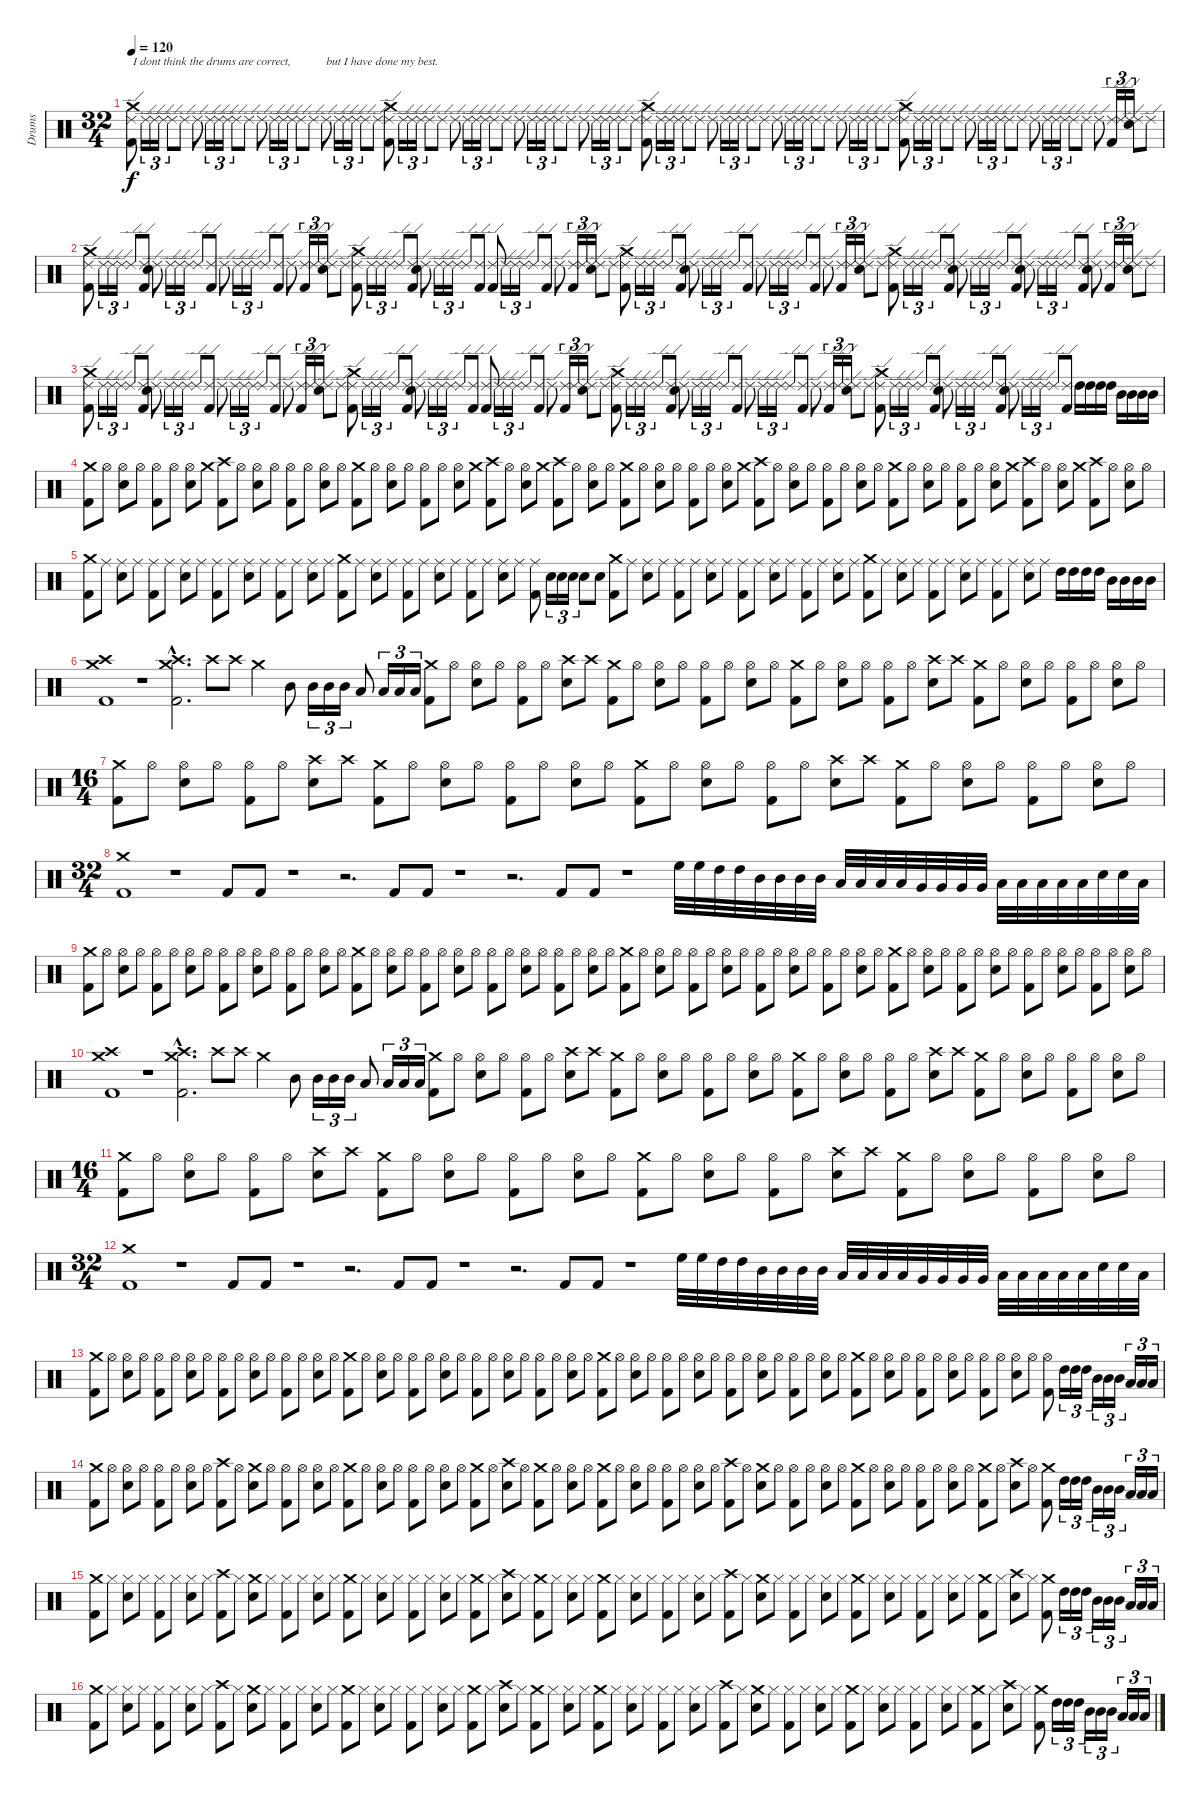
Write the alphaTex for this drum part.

\track ("Drums" "Drums") {instrument percussion}
\staff {score}
\articulation defaults
\ts (32 4)
\tempo 120
\clef neutral
\ks c
("Crash medium (hit)" "Ride (edge) 2" "Kick (hit) 2").8{txt "I dont think the drums are correct," dy f} "Ride (edge) 2".16{tu (3 2)} "Ride (edge) 2".16{tu (3 2)} "Ride (edge) 2".16{tu (3 2)} "Ride (edge) 2".8 "Ride (edge) 2".8 "Ride (edge) 2".8 "Ride (edge) 2".16{tu (3 2)} "Ride (edge) 2".16{tu (3 2)} "Ride (edge) 2".16{tu (3 2)} "Ride (edge) 2".8 "Ride (edge) 2".8 "Ride (edge) 2".8 "Ride (edge) 2".16{tu (3 2)} "Ride (edge) 2".16{tu (3 2)} "Ride (edge) 2".16{tu (3 2)} "Ride (edge) 2".8 "Ride (edge) 2".8 "Ride (edge) 2".8{txt "but I have done my best."} "Ride (edge) 2".16{tu (3 2)} "Ride (edge) 2".16{tu (3 2)} "Ride (edge) 2".16{tu (3 2)} "Ride (edge) 2".8 "Ride (edge) 2".8 ("Crash medium (hit)" "Ride (edge) 2" "Kick (hit) 2").8 "Ride (edge) 2".16{tu (3 2)} "Ride (edge) 2".16{tu (3 2)} "Ride (edge) 2".16{tu (3 2)} "Ride (edge) 2".8 "Ride (edge) 2".8 "Ride (edge) 2".8 "Ride (edge) 2".16{tu (3 2)} "Ride (edge) 2".16{tu (3 2)} "Ride (edge) 2".16{tu (3 2)} "Ride (edge) 2".8 "Ride (edge) 2".8 "Ride (edge) 2".8 "Ride (edge) 2".16{tu (3 2)} "Ride (edge) 2".16{tu (3 2)} "Ride (edge) 2".16{tu (3 2)} "Ride (edge) 2".8 "Ride (edge) 2".8 "Ride (edge) 2".8 "Ride (edge) 2".16{tu (3 2)} "Ride (edge) 2".16{tu (3 2)} "Ride (edge) 2".16{tu (3 2)} "Ride (edge) 2".8 "Ride (edge) 2".8 ("Crash medium (hit)" "Ride (edge) 2" "Kick (hit) 2").8 "Ride (edge) 2".16{tu (3 2)} "Ride (edge) 2".16{tu (3 2)} "Ride (edge) 2".16{tu (3 2)} "Ride (edge) 2".8 "Ride (edge) 2".8 "Ride (edge) 2".8 "Ride (edge) 2".16{tu (3 2)} "Ride (edge) 2".16{tu (3 2)} "Ride (edge) 2".16{tu (3 2)} "Ride (edge) 2".8 "Ride (edge) 2".8 "Ride (edge) 2".8 "Ride (edge) 2".16{tu (3 2)} "Ride (edge) 2".16{tu (3 2)} "Ride (edge) 2".16{tu (3 2)} "Ride (edge) 2".8 "Ride (edge) 2".8 "Ride (edge) 2".8 "Ride (edge) 2".16{tu (3 2)} "Ride (edge) 2".16{tu (3 2)} "Ride (edge) 2".16{tu (3 2)} "Ride (edge) 2".8 "Ride (edge) 2".8 ("Crash medium (hit)" "Ride (edge) 2" "Kick (hit) 2").8 "Ride (edge) 2".16{tu (3 2)} "Ride (edge) 2".16{tu (3 2)} "Ride (edge) 2".16{tu (3 2)} "Ride (edge) 2".8 "Ride (edge) 2".8 "Ride (edge) 2".8 "Ride (edge) 2".16{tu (3 2)} "Ride (edge) 2".16{tu (3 2)} "Ride (edge) 2".16{tu (3 2)} "Ride (edge) 2".8 "Ride (edge) 2".8 "Ride (edge) 2".8 "Ride (edge) 2".16{tu (3 2)} "Ride (edge) 2".16{tu (3 2)} "Ride (edge) 2".16{tu (3 2)} "Ride (edge) 2".8 "Ride (edge) 2".8 "Ride (edge) 2".8 ("Ride (edge) 2" "Kick (hit) 2").16{tu (3 2)} "Ride (edge) 2".16{tu (3 2)} "Ride (edge) 2".16{tu (3 2)} ("Ride (edge) 2" "Snare (hit) 2").8 "Ride (edge) 2".8 |
("Crash medium (hit)" "Ride (edge) 2" "Kick (hit) 2").8 "Ride (edge) 2".16{tu (3 2)} "Ride (edge) 2".16{tu (3 2)} "Ride (edge) 2".16{tu (3 2)} "Ride (edge) 2".8 ("Ride (edge) 2" "Kick (hit) 2").8 ("Ride (edge) 2" "Snare (hit) 2").8 "Ride (edge) 2".16{tu (3 2)} "Ride (edge) 2".16{tu (3 2)} "Ride (edge) 2".16{tu (3 2)} "Ride (edge) 2".8 ("Ride (edge) 2" "Kick (hit) 2").8 "Ride (edge) 2".8 "Ride (edge) 2".16{tu (3 2)} "Ride (edge) 2".16{tu (3 2)} "Ride (edge) 2".16{tu (3 2)} "Ride (edge) 2".8 ("Ride (edge) 2" "Kick (hit) 2").8 "Ride (edge) 2".8 ("Ride (edge) 2" "Kick (hit) 2").16{tu (3 2)} "Ride (edge) 2".16{tu (3 2)} "Ride (edge) 2".16{tu (3 2)} ("Ride (edge) 2" "Snare (hit) 2").8 "Ride (edge) 2".8 ("Crash medium (hit)" "Ride (edge) 2" "Kick (hit) 2").8 "Ride (edge) 2".16{tu (3 2)} "Ride (edge) 2".16{tu (3 2)} "Ride (edge) 2".16{tu (3 2)} "Ride (edge) 2".8 ("Ride (edge) 2" "Kick (hit) 2").8 ("Ride (edge) 2" "Snare (hit) 2").8 "Ride (edge) 2".16{tu (3 2)} "Ride (edge) 2".16{tu (3 2)} "Ride (edge) 2".16{tu (3 2)} "Ride (edge) 2".8 ("Ride (edge) 2" "Kick (hit) 2").8 ("Ride (edge) 2" "Kick (hit) 2").8 "Ride (edge) 2".16{tu (3 2)} "Ride (edge) 2".16{tu (3 2)} "Ride (edge) 2".16{tu (3 2)} "Ride (edge) 2".8 ("Ride (edge) 2" "Kick (hit) 2").8 "Ride (edge) 2".8 ("Ride (edge) 2" "Kick (hit) 2").16{tu (3 2)} "Ride (edge) 2".16{tu (3 2)} "Ride (edge) 2".16{tu (3 2)} ("Ride (edge) 2" "Snare (hit) 2").8 "Ride (edge) 2".8 ("Crash medium (hit)" "Ride (edge) 2" "Kick (hit) 2").8 "Ride (edge) 2".16{tu (3 2)} "Ride (edge) 2".16{tu (3 2)} "Ride (edge) 2".16{tu (3 2)} "Ride (edge) 2".8 ("Ride (edge) 2" "Kick (hit) 2").8 ("Ride (edge) 2" "Snare (hit) 2").8 "Ride (edge) 2".16{tu (3 2)} "Ride (edge) 2".16{tu (3 2)} "Ride (edge) 2".16{tu (3 2)} "Ride (edge) 2".8 ("Ride (edge) 2" "Kick (hit) 2").8 "Ride (edge) 2".8 "Ride (edge) 2".16{tu (3 2)} "Ride (edge) 2".16{tu (3 2)} "Ride (edge) 2".16{tu (3 2)} "Ride (edge) 2".8 ("Ride (edge) 2" "Kick (hit) 2").8 "Ride (edge) 2".8 ("Ride (edge) 2" "Kick (hit) 2").16{tu (3 2)} "Ride (edge) 2".16{tu (3 2)} "Ride (edge) 2".16{tu (3 2)} ("Ride (edge) 2" "Snare (hit) 2").8 "Ride (edge) 2".8 ("Crash medium (hit)" "Ride (edge) 2" "Kick (hit) 2").8 "Ride (edge) 2".16{tu (3 2)} "Ride (edge) 2".16{tu (3 2)} "Ride (edge) 2".16{tu (3 2)} "Ride (edge) 2".8 ("Ride (edge) 2" "Kick (hit) 2").8 ("Ride (edge) 2" "Snare (hit) 2").8 "Ride (edge) 2".16{tu (3 2)} "Ride (edge) 2".16{tu (3 2)} "Ride (edge) 2".16{tu (3 2)} "Ride (edge) 2".8 ("Ride (edge) 2" "Kick (hit) 2").8 ("Ride (edge) 2" "Snare (hit) 2").8 "Ride (edge) 2".16{tu (3 2)} "Ride (edge) 2".16{tu (3 2)} "Ride (edge) 2".16{tu (3 2)} "Ride (edge) 2".8 ("Ride (edge) 2" "Kick (hit) 2").8 ("Ride (edge) 2" "Snare (hit) 2").8 ("Ride (edge) 2" "Kick (hit) 2").16{tu (3 2)} "Ride (edge) 2".16{tu (3 2)} "Ride (edge) 2".16{tu (3 2)} ("Ride (edge) 2" "Snare (hit) 2").8 "Ride (edge) 2".8 |
("Crash medium (hit)" "Ride (edge) 2" "Kick (hit) 2").8 "Ride (edge) 2".16{tu (3 2)} "Ride (edge) 2".16{tu (3 2)} "Ride (edge) 2".16{tu (3 2)} "Ride (edge) 2".8 ("Ride (edge) 2" "Kick (hit) 2").8 ("Ride (edge) 2" "Snare (hit) 2").8 "Ride (edge) 2".16{tu (3 2)} "Ride (edge) 2".16{tu (3 2)} "Ride (edge) 2".16{tu (3 2)} "Ride (edge) 2".8 ("Ride (edge) 2" "Kick (hit) 2").8 "Ride (edge) 2".8 "Ride (edge) 2".16{tu (3 2)} "Ride (edge) 2".16{tu (3 2)} "Ride (edge) 2".16{tu (3 2)} "Ride (edge) 2".8 ("Ride (edge) 2" "Kick (hit) 2").8 "Ride (edge) 2".8 ("Ride (edge) 2" "Kick (hit) 2").16{tu (3 2)} "Ride (edge) 2".16{tu (3 2)} "Ride (edge) 2".16{tu (3 2)} ("Ride (edge) 2" "Snare (hit) 2").8 "Ride (edge) 2".8 ("Crash medium (hit)" "Ride (edge) 2" "Kick (hit) 2").8 "Ride (edge) 2".16{tu (3 2)} "Ride (edge) 2".16{tu (3 2)} "Ride (edge) 2".16{tu (3 2)} "Ride (edge) 2".8 ("Ride (edge) 2" "Kick (hit) 2").8 ("Ride (edge) 2" "Snare (hit) 2").8 "Ride (edge) 2".16{tu (3 2)} "Ride (edge) 2".16{tu (3 2)} "Ride (edge) 2".16{tu (3 2)} "Ride (edge) 2".8 ("Ride (edge) 2" "Kick (hit) 2").8 ("Ride (edge) 2" "Kick (hit) 2").8 "Ride (edge) 2".16{tu (3 2)} "Ride (edge) 2".16{tu (3 2)} "Ride (edge) 2".16{tu (3 2)} "Ride (edge) 2".8 ("Ride (edge) 2" "Kick (hit) 2").8 "Ride (edge) 2".8 ("Ride (edge) 2" "Kick (hit) 2").16{tu (3 2)} "Ride (edge) 2".16{tu (3 2)} "Ride (edge) 2".16{tu (3 2)} ("Ride (edge) 2" "Snare (hit) 2").8 "Ride (edge) 2".8 ("Crash medium (hit)" "Ride (edge) 2" "Kick (hit) 2").8 "Ride (edge) 2".16{tu (3 2)} "Ride (edge) 2".16{tu (3 2)} "Ride (edge) 2".16{tu (3 2)} "Ride (edge) 2".8 ("Ride (edge) 2" "Kick (hit) 2").8 ("Ride (edge) 2" "Snare (hit) 2").8 "Ride (edge) 2".16{tu (3 2)} "Ride (edge) 2".16{tu (3 2)} "Ride (edge) 2".16{tu (3 2)} "Ride (edge) 2".8 ("Ride (edge) 2" "Kick (hit) 2").8 "Ride (edge) 2".8 "Ride (edge) 2".16{tu (3 2)} "Ride (edge) 2".16{tu (3 2)} "Ride (edge) 2".16{tu (3 2)} "Ride (edge) 2".8 ("Ride (edge) 2" "Kick (hit) 2").8 "Ride (edge) 2".8 ("Ride (edge) 2" "Kick (hit) 2").16{tu (3 2)} "Ride (edge) 2".16{tu (3 2)} "Ride (edge) 2".16{tu (3 2)} ("Ride (edge) 2" "Snare (hit) 2").8 "Ride (edge) 2".8 ("Crash medium (hit)" "Ride (edge) 2" "Kick (hit) 2").8 "Ride (edge) 2".16{tu (3 2)} "Ride (edge) 2".16{tu (3 2)} "Ride (edge) 2".16{tu (3 2)} "Ride (edge) 2".8 ("Ride (edge) 2" "Kick (hit) 2").8 ("Ride (edge) 2" "Snare (hit) 2").8 "Ride (edge) 2".16{tu (3 2)} "Ride (edge) 2".16{tu (3 2)} "Ride (edge) 2".16{tu (3 2)} "Ride (edge) 2".8 ("Ride (edge) 2" "Kick (hit) 2").8 ("Ride (edge) 2" "Snare (hit) 2").8 "Ride (edge) 2".16{tu (3 2)} "Ride (edge) 2".16{tu (3 2)} "Ride (edge) 2".16{tu (3 2)} "Ride (edge) 2".8 ("Ride (edge) 2" "Kick (hit) 2").8 "High Tom (hit)".16 "High Tom (hit)".16 "High Tom (hit)".16 "High Tom (hit)".16 "Mid Tom (hit)".16 "Mid Tom (hit)".16 "Mid Tom (hit)".16 "Mid Tom (hit)".16 |
("Crash medium (hit)" "Kick (hit) 2").8 "Hi-Hat (open)".8 ("Hi-Hat (open)" "Snare (hit) 2").8 "Hi-Hat (open)".8 ("Hi-Hat (open)" "Kick (hit) 2").8 "Hi-Hat (open)".8 ("Hi-Hat (open)" "Snare (hit) 2").8 "Crash medium (hit)".8 ("Crash high (hit)" "Kick (hit) 2").8 "Hi-Hat (open)".8 ("Hi-Hat (open)" "Snare (hit) 2").8 "Hi-Hat (open)".8 ("Hi-Hat (open)" "Kick (hit) 2").8 "Hi-Hat (open)".8 ("Hi-Hat (open)" "Snare (hit) 2").8 "Hi-Hat (open)".8 ("Crash medium (hit)" "Kick (hit) 2").8 "Hi-Hat (open)".8 ("Hi-Hat (open)" "Snare (hit) 2").8 "Hi-Hat (open)".8 ("Hi-Hat (open)" "Kick (hit) 2").8 "Hi-Hat (open)".8 ("Hi-Hat (open)" "Snare (hit) 2").8 "Crash medium (hit)".8 ("Crash high (hit)" "Kick (hit) 2").8 "Hi-Hat (open)".8 ("Hi-Hat (open)" "Snare (hit) 2").8 "Crash medium (hit)".8 ("Crash high (hit)" "Kick (hit) 2").8 "Hi-Hat (open)".8 ("Hi-Hat (open)" "Snare (hit) 2").8 "Hi-Hat (open)".8 ("Crash medium (hit)" "Kick (hit) 2").8 "Hi-Hat (open)".8 ("Hi-Hat (open)" "Snare (hit) 2").8 "Hi-Hat (open)".8 ("Hi-Hat (open)" "Kick (hit) 2").8 "Hi-Hat (open)".8 ("Hi-Hat (open)" "Snare (hit) 2").8 "Crash medium (hit)".8 ("Crash high (hit)" "Kick (hit) 2").8 "Hi-Hat (open)".8 ("Hi-Hat (open)" "Snare (hit) 2").8 "Hi-Hat (open)".8 ("Hi-Hat (open)" "Kick (hit) 2").8 "Hi-Hat (open)".8 ("Hi-Hat (open)" "Snare (hit) 2").8 "Hi-Hat (open)".8 ("Crash medium (hit)" "Kick (hit) 2").8 "Hi-Hat (open)".8 ("Hi-Hat (open)" "Snare (hit) 2").8 "Hi-Hat (open)".8 ("Hi-Hat (open)" "Kick (hit) 2").8 "Hi-Hat (open)".8 ("Hi-Hat (open)" "Snare (hit) 2").8 "Crash medium (hit)".8 ("Crash high (hit)" "Kick (hit) 2").8 "Hi-Hat (open)".8 ("Hi-Hat (open)" "Snare (hit) 2").8 "Crash medium (hit)".8 ("Crash high (hit)" "Kick (hit) 2").8 "Hi-Hat (open)".8 ("Hi-Hat (open)" "Snare (hit) 2").8 "Hi-Hat (open)".8 |
("Crash medium (hit)" "Kick (hit) 2").8 "Ride (middle)".8 ("Ride (middle)" "Snare (hit) 2").8 "Ride (middle)".8 ("Ride (middle)" "Kick (hit) 2").8 "Ride (middle)".8 ("Ride (middle)" "Snare (hit) 2").8 "Ride (middle)".8 ("Ride (middle)" "Kick (hit) 2").8 "Ride (middle)".8 ("Ride (middle)" "Snare (hit) 2").8 "Ride (middle)".8 ("Ride (middle)" "Kick (hit) 2").8 "Ride (middle)".8 ("Ride (middle)" "Snare (hit) 2").8 "Ride (middle)".8 ("Crash medium (hit)" "Kick (hit) 2").8 "Ride (middle)".8 ("Ride (middle)" "Snare (hit) 2").8 "Ride (middle)".8 ("Ride (middle)" "Kick (hit) 2").8 "Ride (middle)".8 ("Ride (middle)" "Snare (hit) 2").8 "Ride (middle)".8 ("Ride (middle)" "Kick (hit) 2").8 "Ride (middle)".8 ("Ride (middle)" "Snare (hit) 2").8 "Ride (middle)".8 ("Ride (middle)" "Kick (hit) 2").8 "Snare (hit) 2".16{tu (3 2)} "Snare (hit) 2".16{tu (3 2)} "Snare (hit) 2".16{tu (3 2)} "Snare (hit) 2".8 "Snare (hit) 2".8 ("Crash medium (hit)" "Kick (hit) 2").8 "Ride (middle)".8 ("Ride (middle)" "Snare (hit) 2").8 "Ride (middle)".8 ("Ride (middle)" "Kick (hit) 2").8 "Ride (middle)".8 ("Ride (middle)" "Snare (hit) 2").8 "Ride (middle)".8 ("Ride (middle)" "Kick (hit) 2").8 "Ride (middle)".8 ("Ride (middle)" "Snare (hit) 2").8 "Ride (middle)".8 ("Ride (middle)" "Kick (hit) 2").8 "Ride (middle)".8 ("Ride (middle)" "Snare (hit) 2").8 "Ride (middle)".8 ("Crash medium (hit)" "Kick (hit) 2").8 "Ride (middle)".8 ("Ride (middle)" "Snare (hit) 2").8 "Ride (middle)".8 ("Ride (middle)" "Kick (hit) 2").8 "Ride (middle)".8 ("Ride (middle)" "Snare (hit) 2").8 "Ride (middle)".8 ("Ride (middle)" "Kick (hit) 2").8 "Ride (middle)".8 ("Ride (middle)" "Snare (hit) 2").8 "Ride (middle)".8 "High Tom (hit)".16 "High Tom (hit)".16 "High Tom (hit)".16 "High Tom (hit)".16 "Mid Tom (hit)".16 "Mid Tom (hit)".16 "Mid Tom (hit)".16 "Mid Tom (hit)".16 |
("Crash medium (hit)" "Crash high (hit)" "Kick (hit) 2").1 r.1 ("Crash medium (hit)"{hac} "Crash high (hit)"{hac} "Kick (hit) 2"{hac}).2{d} "Crash high (hit)".8 "Crash high (hit)".8 "Crash medium (hit)".2 "Mid Tom (hit)".8 "Mid Tom (hit)".16{tu (3 2)} "Mid Tom (hit)".16{tu (3 2)} "Mid Tom (hit)".16{tu (3 2)} "Low Tom (hit)".8 "Low Tom (hit)".16{tu (3 2)} "Low Tom (hit)".16{tu (3 2)} "Low Tom (hit)".16{tu (3 2)} ("Crash medium (hit)" "Kick (hit) 2").8 "Hi-Hat (open)".8 ("Hi-Hat (open)" "Snare (hit) 2").8 "Hi-Hat (open)".8 ("Hi-Hat (open)" "Kick (hit) 2").8 "Hi-Hat (open)".8 ("Crash high (hit)" "Snare (hit) 2").8 "Crash high (hit)".8 ("Crash medium (hit)" "Kick (hit) 2").8 "Hi-Hat (open)".8 ("Hi-Hat (open)" "Snare (hit) 2").8 "Hi-Hat (open)".8 ("Hi-Hat (open)" "Kick (hit) 2").8 "Hi-Hat (open)".8 ("Hi-Hat (open)" "Snare (hit) 2").8 "Hi-Hat (open)".8 ("Crash medium (hit)" "Kick (hit) 2").8 "Hi-Hat (open)".8 ("Hi-Hat (open)" "Snare (hit) 2").8 "Hi-Hat (open)".8 ("Hi-Hat (open)" "Kick (hit) 2").8 "Hi-Hat (open)".8 ("Crash high (hit)" "Snare (hit) 2").8 "Crash high (hit)".8 ("Crash medium (hit)" "Kick (hit) 2").8 "Hi-Hat (open)".8 ("Hi-Hat (open)" "Snare (hit) 2").8 "Hi-Hat (open)".8 ("Hi-Hat (open)" "Kick (hit) 2").8 "Hi-Hat (open)".8 ("Hi-Hat (open)" "Snare (hit) 2").8 "Hi-Hat (open)".8 |
\ts (16 4)
("Crash medium (hit)" "Kick (hit) 2").8 "Hi-Hat (open)".8 ("Hi-Hat (open)" "Snare (hit) 2").8 "Hi-Hat (open)".8 ("Hi-Hat (open)" "Kick (hit) 2").8 "Hi-Hat (open)".8 ("Crash high (hit)" "Snare (hit) 2").8 "Crash high (hit)".8 ("Crash medium (hit)" "Kick (hit) 2").8 "Hi-Hat (open)".8 ("Hi-Hat (open)" "Snare (hit) 2").8 "Hi-Hat (open)".8 ("Hi-Hat (open)" "Kick (hit) 2").8 "Hi-Hat (open)".8 ("Hi-Hat (open)" "Snare (hit) 2").8 "Hi-Hat (open)".8 ("Crash medium (hit)" "Kick (hit) 2").8 "Hi-Hat (open)".8 ("Hi-Hat (open)" "Snare (hit) 2").8 "Hi-Hat (open)".8 ("Hi-Hat (open)" "Kick (hit) 2").8 "Hi-Hat (open)".8 ("Crash high (hit)" "Snare (hit) 2").8 "Crash high (hit)".8 ("Crash medium (hit)" "Kick (hit) 2").8 "Hi-Hat (open)".8 ("Hi-Hat (open)" "Snare (hit) 2").8 "Hi-Hat (open)".8 ("Hi-Hat (open)" "Kick (hit) 2").8 "Hi-Hat (open)".8 ("Hi-Hat (open)" "Snare (hit) 2").8 "Hi-Hat (open)".8 |
\ts (32 4)
("Crash medium (hit)" "Kick (hit) 2").1 r.1 "Kick (hit) 2".8 "Kick (hit) 2".8 r.1 r.2{d} "Kick (hit) 2".8 "Kick (hit) 2".8 r.1 r.2{d} "Kick (hit) 2".8 "Kick (hit) 2".8 r.1 "High Floor Tom (hit)".32 "High Floor Tom (hit)".32 "High Tom (hit)".32 "High Tom (hit)".32 "Mid Tom (hit)".32 "Mid Tom (hit)".32 "Mid Tom (hit)".32 "Mid Tom (hit)".32 "Low Tom (hit)".32 "Low Tom (hit)".32 "Low Tom (hit)".32 "Low Tom (hit)".32 "Very Low Tom (hit)".32 "Very Low Tom (hit)".32 "Very Low Tom (hit)".32 "Very Low Tom (hit)".32 "Low Floor Tom (hit)".32 "Low Floor Tom (hit)".32 "Low Floor Tom (hit)".32 "Low Floor Tom (hit)".32 "Low Floor Tom (hit)".32 "Snare (hit)".32 "Snare (hit)".32 "Low Floor Tom (hit)".32 |
("Crash medium (hit)" "Kick (hit) 2").8 "Hi-Hat (open)".8 ("Hi-Hat (open)" "Snare (hit) 2").8 "Hi-Hat (open)".8 ("Hi-Hat (open)" "Kick (hit) 2").8 "Hi-Hat (open)".8 ("Hi-Hat (open)" "Snare (hit) 2").8 "Hi-Hat (open)".8 ("Hi-Hat (open)" "Kick (hit) 2").8 "Hi-Hat (open)".8 ("Hi-Hat (open)" "Snare (hit) 2").8 "Hi-Hat (open)".8 ("Hi-Hat (open)" "Kick (hit) 2").8 "Hi-Hat (open)".8 ("Hi-Hat (open)" "Snare (hit) 2").8 "Hi-Hat (open)".8 ("Crash medium (hit)" "Kick (hit) 2").8 "Hi-Hat (open)".8 ("Hi-Hat (open)" "Snare (hit) 2").8 "Hi-Hat (open)".8 ("Hi-Hat (open)" "Kick (hit) 2").8 "Hi-Hat (open)".8 ("Hi-Hat (open)" "Snare (hit) 2").8 "Hi-Hat (open)".8 ("Hi-Hat (open)" "Kick (hit) 2").8 "Hi-Hat (open)".8 ("Hi-Hat (open)" "Snare (hit) 2").8 "Hi-Hat (open)".8 ("Hi-Hat (open)" "Kick (hit) 2").8 "Hi-Hat (open)".8 ("Hi-Hat (open)" "Snare (hit) 2").8 "Hi-Hat (open)".8 ("Crash medium (hit)" "Kick (hit) 2").8 "Hi-Hat (open)".8 ("Hi-Hat (open)" "Snare (hit) 2").8 "Hi-Hat (open)".8 ("Hi-Hat (open)" "Kick (hit) 2").8 "Hi-Hat (open)".8 ("Hi-Hat (open)" "Snare (hit) 2").8 "Hi-Hat (open)".8 ("Hi-Hat (open)" "Kick (hit) 2").8 "Hi-Hat (open)".8 ("Hi-Hat (open)" "Snare (hit) 2").8 "Hi-Hat (open)".8 ("Hi-Hat (open)" "Kick (hit) 2").8 "Hi-Hat (open)".8 ("Hi-Hat (open)" "Snare (hit) 2").8 "Hi-Hat (open)".8 ("Crash medium (hit)" "Kick (hit) 2").8 "Hi-Hat (open)".8 ("Hi-Hat (open)" "Snare (hit) 2").8 "Hi-Hat (open)".8 ("Hi-Hat (open)" "Kick (hit) 2").8 "Hi-Hat (open)".8 ("Hi-Hat (open)" "Snare (hit) 2").8 "Hi-Hat (open)".8 ("Hi-Hat (open)" "Kick (hit) 2").8 "Hi-Hat (open)".8 ("Hi-Hat (open)" "Snare (hit) 2").8 "Hi-Hat (open)".8 ("Hi-Hat (open)" "Kick (hit) 2").8 "Hi-Hat (open)".8 ("Hi-Hat (open)" "Snare (hit) 2").8 "Hi-Hat (open)".8 |
("Crash medium (hit)" "Crash high (hit)" "Kick (hit) 2").1 r.1 ("Crash medium (hit)"{hac} "Crash high (hit)"{hac} "Kick (hit) 2"{hac}).2{d} "Crash high (hit)".8 "Crash high (hit)".8 "Crash medium (hit)".2 "Mid Tom (hit)".8 "Mid Tom (hit)".16{tu (3 2)} "Mid Tom (hit)".16{tu (3 2)} "Mid Tom (hit)".16{tu (3 2)} "Low Tom (hit)".8 "Low Tom (hit)".16{tu (3 2)} "Low Tom (hit)".16{tu (3 2)} "Low Tom (hit)".16{tu (3 2)} ("Crash medium (hit)" "Kick (hit) 2").8 "Hi-Hat (open)".8 ("Hi-Hat (open)" "Snare (hit) 2").8 "Hi-Hat (open)".8 ("Hi-Hat (open)" "Kick (hit) 2").8 "Hi-Hat (open)".8 ("Crash high (hit)" "Snare (hit) 2").8 "Crash high (hit)".8 ("Crash medium (hit)" "Kick (hit) 2").8 "Hi-Hat (open)".8 ("Hi-Hat (open)" "Snare (hit) 2").8 "Hi-Hat (open)".8 ("Hi-Hat (open)" "Kick (hit) 2").8 "Hi-Hat (open)".8 ("Hi-Hat (open)" "Snare (hit) 2").8 "Hi-Hat (open)".8 ("Crash medium (hit)" "Kick (hit) 2").8 "Hi-Hat (open)".8 ("Hi-Hat (open)" "Snare (hit) 2").8 "Hi-Hat (open)".8 ("Hi-Hat (open)" "Kick (hit) 2").8 "Hi-Hat (open)".8 ("Crash high (hit)" "Snare (hit) 2").8 "Crash high (hit)".8 ("Crash medium (hit)" "Kick (hit) 2").8 "Hi-Hat (open)".8 ("Hi-Hat (open)" "Snare (hit) 2").8 "Hi-Hat (open)".8 ("Hi-Hat (open)" "Kick (hit) 2").8 "Hi-Hat (open)".8 ("Hi-Hat (open)" "Snare (hit) 2").8 "Hi-Hat (open)".8 |
\ts (16 4)
("Crash medium (hit)" "Kick (hit) 2").8 "Hi-Hat (open)".8 ("Hi-Hat (open)" "Snare (hit) 2").8 "Hi-Hat (open)".8 ("Hi-Hat (open)" "Kick (hit) 2").8 "Hi-Hat (open)".8 ("Crash high (hit)" "Snare (hit) 2").8 "Crash high (hit)".8 ("Crash medium (hit)" "Kick (hit) 2").8 "Hi-Hat (open)".8 ("Hi-Hat (open)" "Snare (hit) 2").8 "Hi-Hat (open)".8 ("Hi-Hat (open)" "Kick (hit) 2").8 "Hi-Hat (open)".8 ("Hi-Hat (open)" "Snare (hit) 2").8 "Hi-Hat (open)".8 ("Crash medium (hit)" "Kick (hit) 2").8 "Hi-Hat (open)".8 ("Hi-Hat (open)" "Snare (hit) 2").8 "Hi-Hat (open)".8 ("Hi-Hat (open)" "Kick (hit) 2").8 "Hi-Hat (open)".8 ("Crash high (hit)" "Snare (hit) 2").8 "Crash high (hit)".8 ("Crash medium (hit)" "Kick (hit) 2").8 "Hi-Hat (open)".8 ("Hi-Hat (open)" "Snare (hit) 2").8 "Hi-Hat (open)".8 ("Hi-Hat (open)" "Kick (hit) 2").8 "Hi-Hat (open)".8 ("Hi-Hat (open)" "Snare (hit) 2").8 "Hi-Hat (open)".8 |
\ts (32 4)
("Crash medium (hit)" "Kick (hit) 2").1 r.1 "Kick (hit) 2".8 "Kick (hit) 2".8 r.1 r.2{d} "Kick (hit) 2".8 "Kick (hit) 2".8 r.1 r.2{d} "Kick (hit) 2".8 "Kick (hit) 2".8 r.1 "High Floor Tom (hit)".32 "High Floor Tom (hit)".32 "High Tom (hit)".32 "High Tom (hit)".32 "Mid Tom (hit)".32 "Mid Tom (hit)".32 "Mid Tom (hit)".32 "Mid Tom (hit)".32 "Low Tom (hit)".32 "Low Tom (hit)".32 "Low Tom (hit)".32 "Low Tom (hit)".32 "Very Low Tom (hit)".32 "Very Low Tom (hit)".32 "Very Low Tom (hit)".32 "Very Low Tom (hit)".32 "Low Floor Tom (hit)".32 "Low Floor Tom (hit)".32 "Low Floor Tom (hit)".32 "Low Floor Tom (hit)".32 "Low Floor Tom (hit)".32 "Snare (hit)".32 "Snare (hit)".32 "Low Floor Tom (hit)".32 |
("Crash medium (hit)" "Kick (hit) 2").8 "Hi-Hat (open)".8 ("Hi-Hat (open)" "Snare (hit) 2").8 "Hi-Hat (open)".8 ("Hi-Hat (open)" "Kick (hit) 2").8 "Hi-Hat (open)".8 ("Hi-Hat (open)" "Snare (hit) 2").8 "Hi-Hat (open)".8 ("Hi-Hat (open)" "Kick (hit) 2").8 "Hi-Hat (open)".8 ("Hi-Hat (open)" "Snare (hit) 2").8 "Hi-Hat (open)".8 ("Hi-Hat (open)" "Kick (hit) 2").8 "Hi-Hat (open)".8 ("Hi-Hat (open)" "Snare (hit) 2").8 "Hi-Hat (open)".8 ("Crash medium (hit)" "Kick (hit) 2").8 "Hi-Hat (open)".8 ("Hi-Hat (open)" "Snare (hit) 2").8 "Hi-Hat (open)".8 ("Hi-Hat (open)" "Kick (hit) 2").8 "Hi-Hat (open)".8 ("Hi-Hat (open)" "Snare (hit) 2").8 "Hi-Hat (open)".8 ("Hi-Hat (open)" "Kick (hit) 2").8 "Hi-Hat (open)".8 ("Hi-Hat (open)" "Snare (hit) 2").8 "Hi-Hat (open)".8 ("Hi-Hat (open)" "Kick (hit) 2").8 "Hi-Hat (open)".8 ("Hi-Hat (open)" "Snare (hit) 2").8 "Hi-Hat (open)".8 ("Crash medium (hit)" "Kick (hit) 2").8 "Hi-Hat (open)".8 ("Hi-Hat (open)" "Snare (hit) 2").8 "Hi-Hat (open)".8 ("Hi-Hat (open)" "Kick (hit) 2").8 "Hi-Hat (open)".8 ("Hi-Hat (open)" "Snare (hit) 2").8 "Hi-Hat (open)".8 ("Hi-Hat (open)" "Kick (hit) 2").8 "Hi-Hat (open)".8 ("Hi-Hat (open)" "Snare (hit) 2").8 "Hi-Hat (open)".8 ("Hi-Hat (open)" "Kick (hit) 2").8 "Hi-Hat (open)".8 ("Hi-Hat (open)" "Snare (hit) 2").8 "Hi-Hat (open)".8 ("Crash medium (hit)" "Kick (hit) 2").8 "Hi-Hat (open)".8 ("Hi-Hat (open)" "Snare (hit) 2").8 "Hi-Hat (open)".8 ("Hi-Hat (open)" "Kick (hit) 2").8 "Hi-Hat (open)".8 ("Hi-Hat (open)" "Snare (hit) 2").8 "Hi-Hat (open)".8 ("Hi-Hat (open)" "Kick (hit) 2").8 "Hi-Hat (open)".8 ("Hi-Hat (open)" "Snare (hit) 2").8 "Hi-Hat (open)".8 ("Hi-Hat (open)" "Kick (hit) 2").8 "High Tom (hit)".16{tu (3 2)} "High Tom (hit)".16{tu (3 2)} "High Tom (hit)".16{tu (3 2)} "Mid Tom (hit)".16{tu (3 2)} "Mid Tom (hit)".16{tu (3 2)} "Mid Tom (hit)".16{tu (3 2)} "Low Tom (hit)".16{tu (3 2)} "Low Tom (hit)".16{tu (3 2)} "Low Tom (hit)".16{tu (3 2)} |
("Crash medium (hit)" "Kick (hit) 2").8 "Hi-Hat (open)".8 ("Hi-Hat (open)" "Snare (hit) 2").8 "Hi-Hat (open)".8 ("Hi-Hat (open)" "Kick (hit) 2").8 "Hi-Hat (open)".8 ("Hi-Hat (open)" "Snare (hit) 2").8 "Hi-Hat (open)".8 ("Crash high (hit)" "Kick (hit) 2").8 "Hi-Hat (open)".8 ("Crash medium (hit)" "Snare (hit) 2").8 "Hi-Hat (open)".8 ("Hi-Hat (open)" "Kick (hit) 2").8 "Hi-Hat (open)".8 ("Hi-Hat (open)" "Snare (hit) 2").8 "Hi-Hat (open)".8 ("Crash medium (hit)" "Kick (hit) 2").8 "Hi-Hat (open)".8 ("Hi-Hat (open)" "Snare (hit) 2").8 "Hi-Hat (open)".8 ("Hi-Hat (open)" "Kick (hit) 2").8 "Hi-Hat (open)".8 ("Hi-Hat (open)" "Snare (hit) 2").8 "Hi-Hat (open)".8 ("Crash medium (hit)" "Kick (hit) 2").8 "Hi-Hat (open)".8 ("Crash high (hit)" "Snare (hit) 2").8 "Hi-Hat (open)".8 ("Crash medium (hit)" "Kick (hit) 2").8 "Hi-Hat (open)".8 ("Hi-Hat (open)" "Snare (hit) 2").8 "Hi-Hat (open)".8 ("Crash medium (hit)" "Kick (hit) 2").8 "Hi-Hat (open)".8 ("Hi-Hat (open)" "Snare (hit) 2").8 "Hi-Hat (open)".8 ("Hi-Hat (open)" "Kick (hit) 2").8 "Hi-Hat (open)".8 ("Hi-Hat (open)" "Snare (hit) 2").8 "Hi-Hat (open)".8 ("Crash high (hit)" "Kick (hit) 2").8 "Hi-Hat (open)".8 ("Crash medium (hit)" "Snare (hit) 2").8 "Hi-Hat (open)".8 ("Hi-Hat (open)" "Kick (hit) 2").8 "Hi-Hat (open)".8 ("Hi-Hat (open)" "Snare (hit) 2").8 "Hi-Hat (open)".8 ("Crash medium (hit)" "Kick (hit) 2").8 "Hi-Hat (open)".8 ("Hi-Hat (open)" "Snare (hit) 2").8 "Hi-Hat (open)".8 ("Hi-Hat (open)" "Kick (hit) 2").8 "Hi-Hat (open)".8 ("Hi-Hat (open)" "Snare (hit) 2").8 "Hi-Hat (open)".8 ("Crash medium (hit)" "Kick (hit) 2").8 "Hi-Hat (open)".8 ("Crash high (hit)" "Snare (hit) 2").8 "Hi-Hat (open)".8 ("Crash medium (hit)" "Kick (hit) 2").8 "High Tom (hit)".16{tu (3 2)} "High Tom (hit)".16{tu (3 2)} "High Tom (hit)".16{tu (3 2)} "Mid Tom (hit)".16{tu (3 2)} "Mid Tom (hit)".16{tu (3 2)} "Mid Tom (hit)".16{tu (3 2)} "Low Tom (hit)".16{tu (3 2)} "Low Tom (hit)".16{tu (3 2)} "Low Tom (hit)".16{tu (3 2)} |
("Crash medium (hit)" "Kick (hit) 2").8 "Hi-Hat (closed)".8 ("Hi-Hat (closed)" "Snare (hit) 2").8 "Hi-Hat (closed)".8 ("Hi-Hat (closed)" "Kick (hit) 2").8 "Hi-Hat (closed)".8 ("Hi-Hat (closed)" "Snare (hit) 2").8 "Hi-Hat (closed)".8 ("Crash high (hit)" "Kick (hit) 2").8 "Hi-Hat (closed)".8 ("Crash medium (hit)" "Snare (hit) 2").8 "Hi-Hat (closed)".8 ("Hi-Hat (closed)" "Kick (hit) 2").8 "Hi-Hat (closed)".8 ("Hi-Hat (closed)" "Snare (hit) 2").8 "Hi-Hat (closed)".8 ("Crash medium (hit)" "Kick (hit) 2").8 "Hi-Hat (closed)".8 ("Hi-Hat (closed)" "Snare (hit) 2").8 "Hi-Hat (closed)".8 ("Hi-Hat (closed)" "Kick (hit) 2").8 "Hi-Hat (closed)".8 ("Hi-Hat (closed)" "Snare (hit) 2").8 "Hi-Hat (closed)".8 ("Crash medium (hit)" "Kick (hit) 2").8 "Hi-Hat (closed)".8 ("Crash high (hit)" "Snare (hit) 2").8 "Hi-Hat (closed)".8 ("Crash medium (hit)" "Kick (hit) 2").8 "Hi-Hat (closed)".8 ("Hi-Hat (closed)" "Snare (hit) 2").8 "Hi-Hat (closed)".8 ("Crash medium (hit)" "Kick (hit) 2").8 "Hi-Hat (closed)".8 ("Hi-Hat (closed)" "Snare (hit) 2").8 "Hi-Hat (closed)".8 ("Hi-Hat (closed)" "Kick (hit) 2").8 "Hi-Hat (closed)".8 ("Hi-Hat (closed)" "Snare (hit) 2").8 "Hi-Hat (closed)".8 ("Crash high (hit)" "Kick (hit) 2").8 "Hi-Hat (closed)".8 ("Crash medium (hit)" "Snare (hit) 2").8 "Hi-Hat (closed)".8 ("Hi-Hat (closed)" "Kick (hit) 2").8 "Hi-Hat (closed)".8 ("Hi-Hat (closed)" "Snare (hit) 2").8 "Hi-Hat (closed)".8 ("Crash medium (hit)" "Kick (hit) 2").8 "Hi-Hat (closed)".8 ("Hi-Hat (closed)" "Snare (hit) 2").8 "Hi-Hat (closed)".8 ("Hi-Hat (closed)" "Kick (hit) 2").8 "Hi-Hat (closed)".8 ("Hi-Hat (closed)" "Snare (hit) 2").8 "Hi-Hat (closed)".8 ("Crash medium (hit)" "Kick (hit) 2").8 "Hi-Hat (closed)".8 ("Crash high (hit)" "Snare (hit) 2").8 "Hi-Hat (closed)".8 ("Crash medium (hit)" "Kick (hit) 2").8 "High Tom (hit)".16{tu (3 2)} "High Tom (hit)".16{tu (3 2)} "High Tom (hit)".16{tu (3 2)} "Mid Tom (hit)".16{tu (3 2)} "Mid Tom (hit)".16{tu (3 2)} "Mid Tom (hit)".16{tu (3 2)} "Low Tom (hit)".16{tu (3 2)} "Low Tom (hit)".16{tu (3 2)} "Low Tom (hit)".16{tu (3 2)} |
("Crash medium (hit)" "Kick (hit) 2").8 "Hi-Hat (closed)".8 ("Hi-Hat (closed)" "Snare (hit) 2").8 "Hi-Hat (closed)".8 ("Hi-Hat (closed)" "Kick (hit) 2").8 "Hi-Hat (closed)".8 ("Hi-Hat (closed)" "Snare (hit) 2").8 "Hi-Hat (closed)".8 ("Crash high (hit)" "Kick (hit) 2").8 "Hi-Hat (closed)".8 ("Crash medium (hit)" "Snare (hit) 2").8 "Hi-Hat (closed)".8 ("Hi-Hat (closed)" "Kick (hit) 2").8 "Hi-Hat (closed)".8 ("Hi-Hat (closed)" "Snare (hit) 2").8 "Hi-Hat (closed)".8 ("Crash medium (hit)" "Kick (hit) 2").8 "Hi-Hat (closed)".8 ("Hi-Hat (closed)" "Snare (hit) 2").8 "Hi-Hat (closed)".8 ("Hi-Hat (closed)" "Kick (hit) 2").8 "Hi-Hat (closed)".8 ("Hi-Hat (closed)" "Snare (hit) 2").8 "Hi-Hat (closed)".8 ("Crash medium (hit)" "Kick (hit) 2").8 "Hi-Hat (closed)".8 ("Crash high (hit)" "Snare (hit) 2").8 "Hi-Hat (closed)".8 ("Crash medium (hit)" "Kick (hit) 2").8 "Hi-Hat (closed)".8 ("Hi-Hat (closed)" "Snare (hit) 2").8 "Hi-Hat (closed)".8 ("Crash medium (hit)" "Kick (hit) 2").8 "Hi-Hat (closed)".8 ("Hi-Hat (closed)" "Snare (hit) 2").8 "Hi-Hat (closed)".8 ("Hi-Hat (closed)" "Kick (hit) 2").8 "Hi-Hat (closed)".8 ("Hi-Hat (closed)" "Snare (hit) 2").8 "Hi-Hat (closed)".8 ("Crash high (hit)" "Kick (hit) 2").8 "Hi-Hat (closed)".8 ("Crash medium (hit)" "Snare (hit) 2").8 "Hi-Hat (closed)".8 ("Hi-Hat (closed)" "Kick (hit) 2").8 "Hi-Hat (closed)".8 ("Hi-Hat (closed)" "Snare (hit) 2").8 "Hi-Hat (closed)".8 ("Crash medium (hit)" "Kick (hit) 2").8 "Hi-Hat (closed)".8 ("Hi-Hat (closed)" "Snare (hit) 2").8 "Hi-Hat (closed)".8 ("Hi-Hat (closed)" "Kick (hit) 2").8 "Hi-Hat (closed)".8 ("Hi-Hat (closed)" "Snare (hit) 2").8 "Hi-Hat (closed)".8 ("Crash medium (hit)" "Kick (hit) 2").8 "Hi-Hat (closed)".8 ("Crash high (hit)" "Snare (hit) 2").8 "Hi-Hat (closed)".8 ("Crash medium (hit)" "Kick (hit) 2").8 "High Tom (hit)".16{tu (3 2)} "High Tom (hit)".16{tu (3 2)} "High Tom (hit)".16{tu (3 2)} "Mid Tom (hit)".16{tu (3 2)} "Mid Tom (hit)".16{tu (3 2)} "Mid Tom (hit)".16{tu (3 2)} "Low Tom (hit)".16{tu (3 2)} "Low Tom (hit)".16{tu (3 2)} "Low Tom (hit)".16{tu (3 2)}
